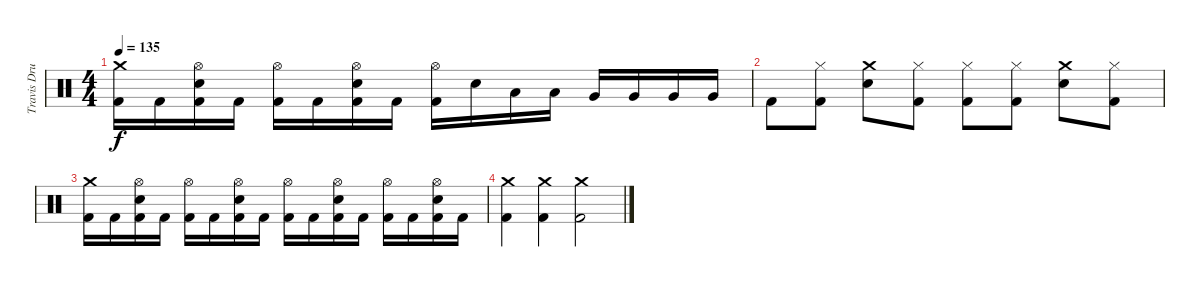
\track ("Travis Drums" "Travis Dru") {instrument percussion}
\staff {score}
\articulation defaults
\ts (4 4)
\tempo 135
\clef neutral
\ks c
("Crash medium (hit)" "Kick (hit) 2").16{dy f} "Kick (hit) 2".16 ("Hi-Hat (open)" "Electric Snare (hit)" "Kick (hit) 2").16 "Kick (hit) 2".16 ("Hi-Hat (open)" "Kick (hit) 2").16 "Kick (hit) 2".16 ("Hi-Hat (open)" "Electric Snare (hit)" "Kick (hit) 2").16 "Kick (hit) 2".16 ("Hi-Hat (open)" "Kick (hit) 2").16 "Electric Snare (hit)".16 "Low Tom (hit)".16 "Low Tom (hit)".16 "Very Low Tom (hit)".16 "Very Low Tom (hit)".16 "Very Low Tom (hit)".16 "Very Low Tom (hit)".16 |
"Kick (hit) 2".8 ("Hi-Hat (closed)" "Kick (hit) 2").8 ("Crash medium (hit)" "Electric Snare (hit)").8 ("Hi-Hat (closed)" "Kick (hit) 2").8 ("Hi-Hat (closed)" "Kick (hit) 2").8 ("Hi-Hat (closed)" "Kick (hit) 2").8 ("Crash medium (hit)" "Electric Snare (hit)").8 ("Hi-Hat (closed)" "Kick (hit) 2").8 |
("Crash medium (hit)" "Kick (hit) 2").16 "Kick (hit) 2".16 ("Hi-Hat (open)" "Electric Snare (hit)" "Kick (hit) 2").16 "Kick (hit) 2".16 ("Hi-Hat (open)" "Kick (hit) 2").16 "Kick (hit) 2".16 ("Hi-Hat (open)" "Electric Snare (hit)" "Kick (hit) 2").16 "Kick (hit) 2".16 ("Hi-Hat (open)" "Kick (hit) 2").16 "Kick (hit) 2".16 ("Hi-Hat (open)" "Electric Snare (hit)" "Kick (hit) 2").16 "Kick (hit) 2".16 ("Hi-Hat (open)" "Kick (hit) 2").16 "Kick (hit) 2".16 ("Hi-Hat (open)" "Electric Snare (hit)" "Kick (hit) 2").16 "Kick (hit) 2".16 |
("Crash medium (hit)" "Kick (hit) 2").4 ("Crash medium (hit)" "Kick (hit) 2").4 ("Crash medium (hit)" "Kick (hit) 2").2{volume 0}
